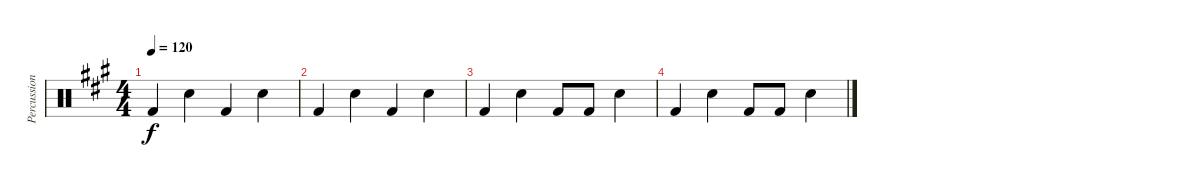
\track ("Percussion" "Percussion") {instrument percussion}
\staff {score}
\articulation defaults
\ts (4 4)
\tempo 120
\clef neutral
\ks a "Kick (hit) 2".4{dy f} "Snare (hit) 2".4 "Kick (hit) 2".4 "Snare (hit) 2".4
|
"Kick (hit) 2".4 "Snare (hit) 2".4 "Kick (hit) 2".4 "Snare (hit) 2".4 |
"Kick (hit) 2".4 "Snare (hit) 2".4 "Kick (hit) 2".8 "Kick (hit) 2".8 "Snare (hit) 2".4 |
"Kick (hit) 2".4 "Snare (hit) 2".4 "Kick (hit) 2".8 "Kick (hit) 2".8 "Snare (hit) 2".4
